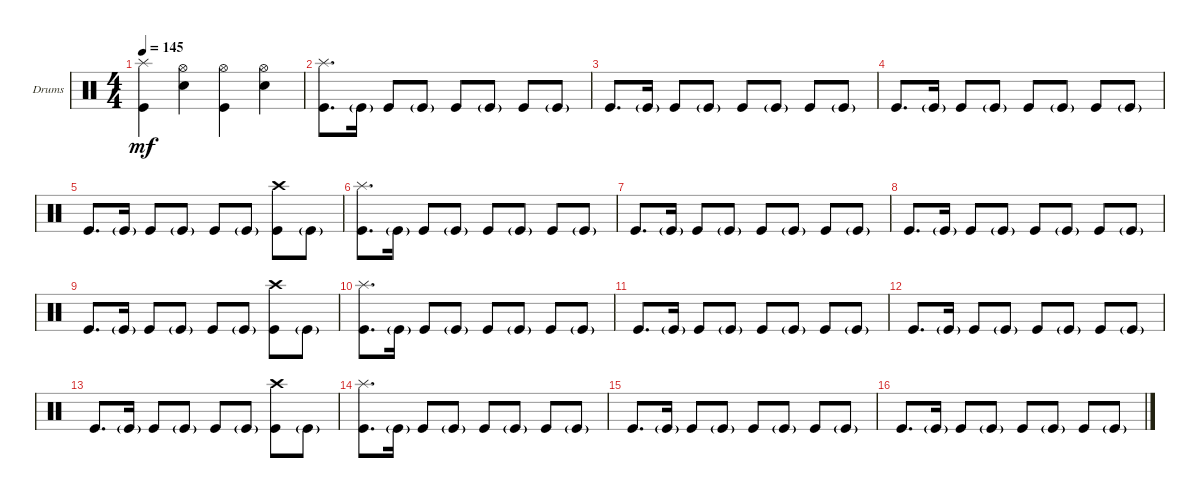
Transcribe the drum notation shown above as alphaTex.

\bracketExtendMode groupsimilarinstruments
\firstSystemTrackNameOrientation horizontal
\otherSystemsTrackNameOrientation horizontal
\track ("Drums" "Drums") {instrument percussion}
\staff {score}
\articulation defaults
\ts (4 4)
\tempo 145
\clef neutral
\ks c
("Kick (hit)" "Splash (hit)").4{dy mf} ("Snare (hit) 2" "Hi-Hat (open)").4 ("Kick (hit)" "Hi-Hat (open)").4 ("Snare (hit) 2" "Hi-Hat (open)").4 |
("Kick (hit)" "Splash (hit)").8{d} "Kick (hit)"{g}.16 "Kick (hit)".8 "Kick (hit)"{g}.8 "Kick (hit)".8 "Kick (hit)"{g}.8 "Kick (hit)".8 "Kick (hit)"{g}.8 |
"Kick (hit)".8{d} "Kick (hit)"{g}.16 "Kick (hit)".8 "Kick (hit)"{g}.8 "Kick (hit)".8 "Kick (hit)"{g}.8 "Kick (hit)".8 "Kick (hit)"{g}.8 |
"Kick (hit)".8{d} "Kick (hit)"{g}.16 "Kick (hit)".8 "Kick (hit)"{g}.8 "Kick (hit)".8 "Kick (hit)"{g}.8 "Kick (hit)".8 "Kick (hit)"{g}.8 |
"Kick (hit)".8{d} "Kick (hit)"{g}.16 "Kick (hit)".8 "Kick (hit)"{g}.8 "Kick (hit)".8 "Kick (hit)"{g}.8 ("Kick (hit)" "Crash high (hit)").8 "Kick (hit)"{g}.8 |
("Kick (hit)" "Splash (hit)").8{d} "Kick (hit)"{g}.16 "Kick (hit)".8 "Kick (hit)"{g}.8 "Kick (hit)".8 "Kick (hit)"{g}.8 "Kick (hit)".8 "Kick (hit)"{g}.8 |
"Kick (hit)".8{d} "Kick (hit)"{g}.16 "Kick (hit)".8 "Kick (hit)"{g}.8 "Kick (hit)".8 "Kick (hit)"{g}.8 "Kick (hit)".8 "Kick (hit)"{g}.8 |
"Kick (hit)".8{d} "Kick (hit)"{g}.16 "Kick (hit)".8 "Kick (hit)"{g}.8 "Kick (hit)".8 "Kick (hit)"{g}.8 "Kick (hit)".8 "Kick (hit)"{g}.8 |
"Kick (hit)".8{d} "Kick (hit)"{g}.16 "Kick (hit)".8 "Kick (hit)"{g}.8 "Kick (hit)".8 "Kick (hit)"{g}.8 ("Kick (hit)" "Crash high (hit)").8 "Kick (hit)"{g}.8 |
("Kick (hit)" "Splash (hit)").8{d} "Kick (hit)"{g}.16 "Kick (hit)".8 "Kick (hit)"{g}.8 "Kick (hit)".8 "Kick (hit)"{g}.8 "Kick (hit)".8 "Kick (hit)"{g}.8 |
"Kick (hit)".8{d} "Kick (hit)"{g}.16 "Kick (hit)".8 "Kick (hit)"{g}.8 "Kick (hit)".8 "Kick (hit)"{g}.8 "Kick (hit)".8 "Kick (hit)"{g}.8 |
"Kick (hit)".8{d} "Kick (hit)"{g}.16 "Kick (hit)".8 "Kick (hit)"{g}.8 "Kick (hit)".8 "Kick (hit)"{g}.8 "Kick (hit)".8 "Kick (hit)"{g}.8 |
"Kick (hit)".8{d} "Kick (hit)"{g}.16 "Kick (hit)".8 "Kick (hit)"{g}.8 "Kick (hit)".8 "Kick (hit)"{g}.8 ("Kick (hit)" "Crash high (hit)").8 "Kick (hit)"{g}.8 |
("Kick (hit)" "Splash (hit)").8{d} "Kick (hit)"{g}.16 "Kick (hit)".8 "Kick (hit)"{g}.8 "Kick (hit)".8 "Kick (hit)"{g}.8 "Kick (hit)".8 "Kick (hit)"{g}.8 |
"Kick (hit)".8{d} "Kick (hit)"{g}.16 "Kick (hit)".8 "Kick (hit)"{g}.8 "Kick (hit)".8 "Kick (hit)"{g}.8 "Kick (hit)".8 "Kick (hit)"{g}.8 |
"Kick (hit)".8{d} "Kick (hit)"{g}.16 "Kick (hit)".8 "Kick (hit)"{g}.8 "Kick (hit)".8 "Kick (hit)"{g}.8 "Kick (hit)".8 "Kick (hit)"{g}.8
